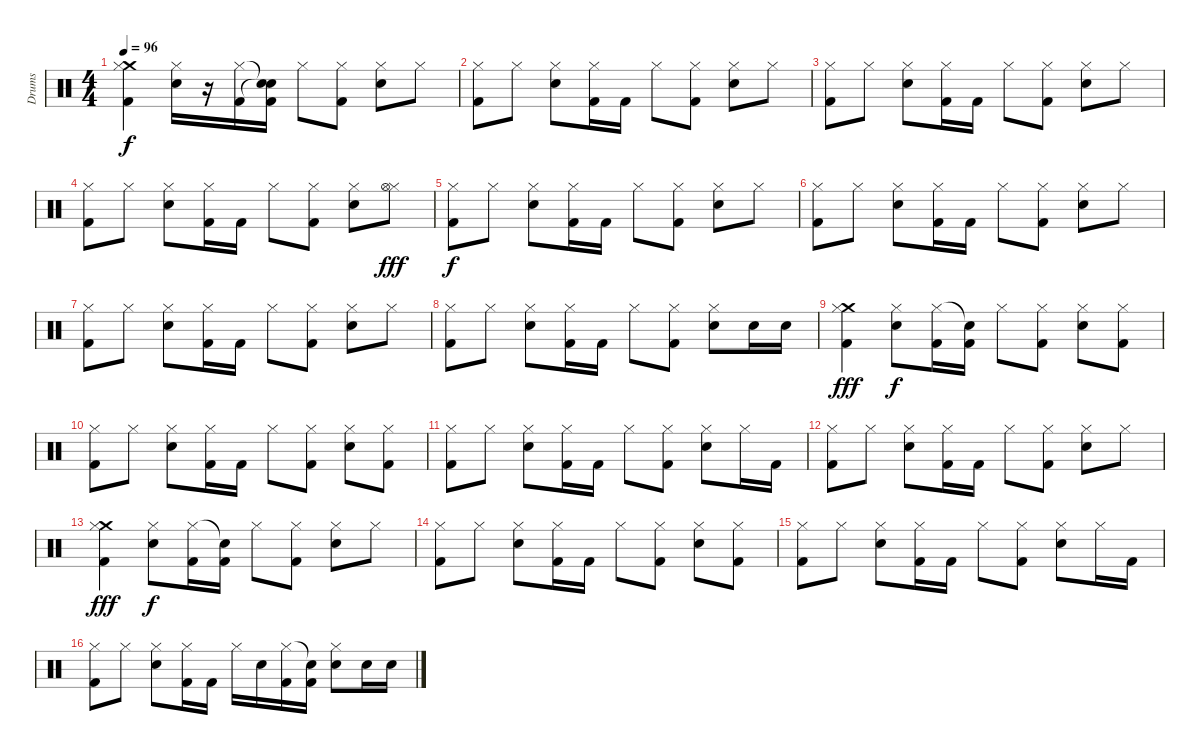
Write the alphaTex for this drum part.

\track ("Drums" "Drums") {instrument percussion}
\staff {score}
\articulation defaults
\ts (4 4)
\tempo 96
\clef neutral
\ks c
("Crash medium (hit)" "Hi-Hat (closed)" "Kick (hit) 2").4{dy f} ("Hi-Hat (closed)" "Snare (hit) 2").16 r.16 ("Hi-Hat (closed)" "Kick (hit) 2").16 ("Snare (hit)"{t} "Snare (hit)"{t} "Kick (hit) 2").16 "Hi-Hat (closed)".8 ("Hi-Hat (closed)" "Kick (hit) 2").8 ("Hi-Hat (closed)" "Snare (hit) 2").8 "Hi-Hat (closed)".8 |
("Hi-Hat (closed)" "Kick (hit) 2").8 "Hi-Hat (closed)".8 ("Hi-Hat (closed)" "Snare (hit) 2").8 ("Hi-Hat (closed)" "Kick (hit) 2").16 "Kick (hit) 2".16 "Hi-Hat (closed)".8 ("Hi-Hat (closed)" "Kick (hit) 2").8 ("Hi-Hat (closed)" "Snare (hit) 2").8 "Hi-Hat (closed)".8 |
("Hi-Hat (closed)" "Kick (hit) 2").8 "Hi-Hat (closed)".8 ("Hi-Hat (closed)" "Snare (hit) 2").8 ("Hi-Hat (closed)" "Kick (hit) 2").16 "Kick (hit) 2".16 "Hi-Hat (closed)".8 ("Hi-Hat (closed)" "Kick (hit) 2").8 ("Hi-Hat (closed)" "Snare (hit) 2").8 "Hi-Hat (closed)".8 |
("Hi-Hat (closed)" "Kick (hit) 2").8 "Hi-Hat (closed)".8 ("Hi-Hat (closed)" "Snare (hit) 2").8 ("Hi-Hat (closed)" "Kick (hit) 2").16 "Kick (hit) 2".16 "Hi-Hat (closed)".8 ("Hi-Hat (closed)" "Kick (hit) 2").8 ("Hi-Hat (closed)" "Snare (hit) 2").8 ("Hi-Hat (closed)" "Hi-Hat (open)").8{dy fff} |
("Hi-Hat (closed)" "Kick (hit) 2").8{dy f} "Hi-Hat (closed)".8 ("Hi-Hat (closed)" "Snare (hit) 2").8 ("Hi-Hat (closed)" "Kick (hit) 2").16 "Kick (hit) 2".16 "Hi-Hat (closed)".8 ("Hi-Hat (closed)" "Kick (hit) 2").8 ("Hi-Hat (closed)" "Snare (hit) 2").8 "Hi-Hat (closed)".8 |
("Hi-Hat (closed)" "Kick (hit) 2").8 "Hi-Hat (closed)".8 ("Hi-Hat (closed)" "Snare (hit) 2").8 ("Hi-Hat (closed)" "Kick (hit) 2").16 "Kick (hit) 2".16 "Hi-Hat (closed)".8 ("Hi-Hat (closed)" "Kick (hit) 2").8 ("Hi-Hat (closed)" "Snare (hit) 2").8 "Hi-Hat (closed)".8 |
("Hi-Hat (closed)" "Kick (hit) 2").8 "Hi-Hat (closed)".8 ("Hi-Hat (closed)" "Snare (hit) 2").8 ("Hi-Hat (closed)" "Kick (hit) 2").16 "Kick (hit) 2".16 "Hi-Hat (closed)".8 ("Hi-Hat (closed)" "Kick (hit) 2").8 ("Hi-Hat (closed)" "Snare (hit) 2").8 "Hi-Hat (closed)".8 |
("Hi-Hat (closed)" "Kick (hit) 2").8 "Hi-Hat (closed)".8 ("Hi-Hat (closed)" "Snare (hit) 2").8 ("Hi-Hat (closed)" "Kick (hit) 2").16 "Kick (hit) 2".16 "Hi-Hat (closed)".8 ("Hi-Hat (closed)" "Kick (hit) 2").8 ("Hi-Hat (closed)" "Snare (hit) 2").8 "Snare (hit) 2".16 "Snare (hit) 2".16 |
("Crash medium (hit)" "Hi-Hat (closed)" "Kick (hit) 2").4{dy fff} ("Hi-Hat (closed)" "Snare (hit) 2").8{dy f} ("Hi-Hat (closed)" "Kick (hit) 2").16 ("Snare (hit)"{t} "Kick (hit) 2").16 "Hi-Hat (closed)".8 ("Hi-Hat (closed)" "Kick (hit) 2").8 ("Hi-Hat (closed)" "Snare (hit) 2").8 ("Hi-Hat (closed)" "Kick (hit) 2").8 |
("Hi-Hat (closed)" "Kick (hit) 2").8 "Hi-Hat (closed)".8 ("Hi-Hat (closed)" "Snare (hit) 2").8 ("Hi-Hat (closed)" "Kick (hit) 2").16 "Kick (hit) 2".16 "Hi-Hat (closed)".8 ("Hi-Hat (closed)" "Kick (hit) 2").8 ("Hi-Hat (closed)" "Snare (hit) 2").8 ("Hi-Hat (closed)" "Kick (hit) 2").8 |
("Hi-Hat (closed)" "Kick (hit) 2").8 "Hi-Hat (closed)".8 ("Hi-Hat (closed)" "Snare (hit) 2").8 ("Hi-Hat (closed)" "Kick (hit) 2").16 "Kick (hit) 2".16 "Hi-Hat (closed)".8 ("Hi-Hat (closed)" "Kick (hit) 2").8 ("Hi-Hat (closed)" "Snare (hit) 2").8 "Hi-Hat (closed)".16 "Kick (hit) 2".16 |
("Hi-Hat (closed)" "Kick (hit) 2").8 "Hi-Hat (closed)".8 ("Hi-Hat (closed)" "Snare (hit) 2").8 ("Hi-Hat (closed)" "Kick (hit) 2").16 "Kick (hit) 2".16 "Hi-Hat (closed)".8 ("Hi-Hat (closed)" "Kick (hit) 2").8 ("Hi-Hat (closed)" "Snare (hit) 2").8 "Hi-Hat (closed)".8 |
("Crash medium (hit)" "Hi-Hat (closed)" "Kick (hit) 2").4{dy fff} ("Hi-Hat (closed)" "Snare (hit) 2").8{dy f} ("Hi-Hat (closed)" "Kick (hit) 2").16 ("Snare (hit)"{t} "Kick (hit) 2").16 "Hi-Hat (closed)".8 ("Hi-Hat (closed)" "Kick (hit) 2").8 ("Hi-Hat (closed)" "Snare (hit) 2").8 "Hi-Hat (closed)".8 |
("Hi-Hat (closed)" "Kick (hit) 2").8 "Hi-Hat (closed)".8 ("Hi-Hat (closed)" "Snare (hit) 2").8 ("Hi-Hat (closed)" "Kick (hit) 2").16 "Kick (hit) 2".16 "Hi-Hat (closed)".8 ("Hi-Hat (closed)" "Kick (hit) 2").8 ("Hi-Hat (closed)" "Snare (hit) 2").8 ("Hi-Hat (closed)" "Kick (hit) 2").8 |
("Hi-Hat (closed)" "Kick (hit) 2").8 "Hi-Hat (closed)".8 ("Hi-Hat (closed)" "Snare (hit) 2").8 ("Hi-Hat (closed)" "Kick (hit) 2").16 "Kick (hit) 2".16 "Hi-Hat (closed)".8 ("Hi-Hat (closed)" "Kick (hit) 2").8 ("Hi-Hat (closed)" "Snare (hit) 2").8 "Hi-Hat (closed)".16 "Kick (hit) 2".16 |
("Hi-Hat (closed)" "Kick (hit) 2").8 "Hi-Hat (closed)".8 ("Hi-Hat (closed)" "Snare (hit) 2").8 ("Hi-Hat (closed)" "Kick (hit) 2").16 "Kick (hit) 2".16 "Hi-Hat (closed)".16 "Snare (hit) 2".16 ("Hi-Hat (closed)" "Kick (hit) 2").16 ("Snare (hit)"{t} "Kick (hit) 2").16 ("Hi-Hat (closed)" "Snare (hit) 2").8 "Snare (hit) 2".16 "Snare (hit) 2".16
